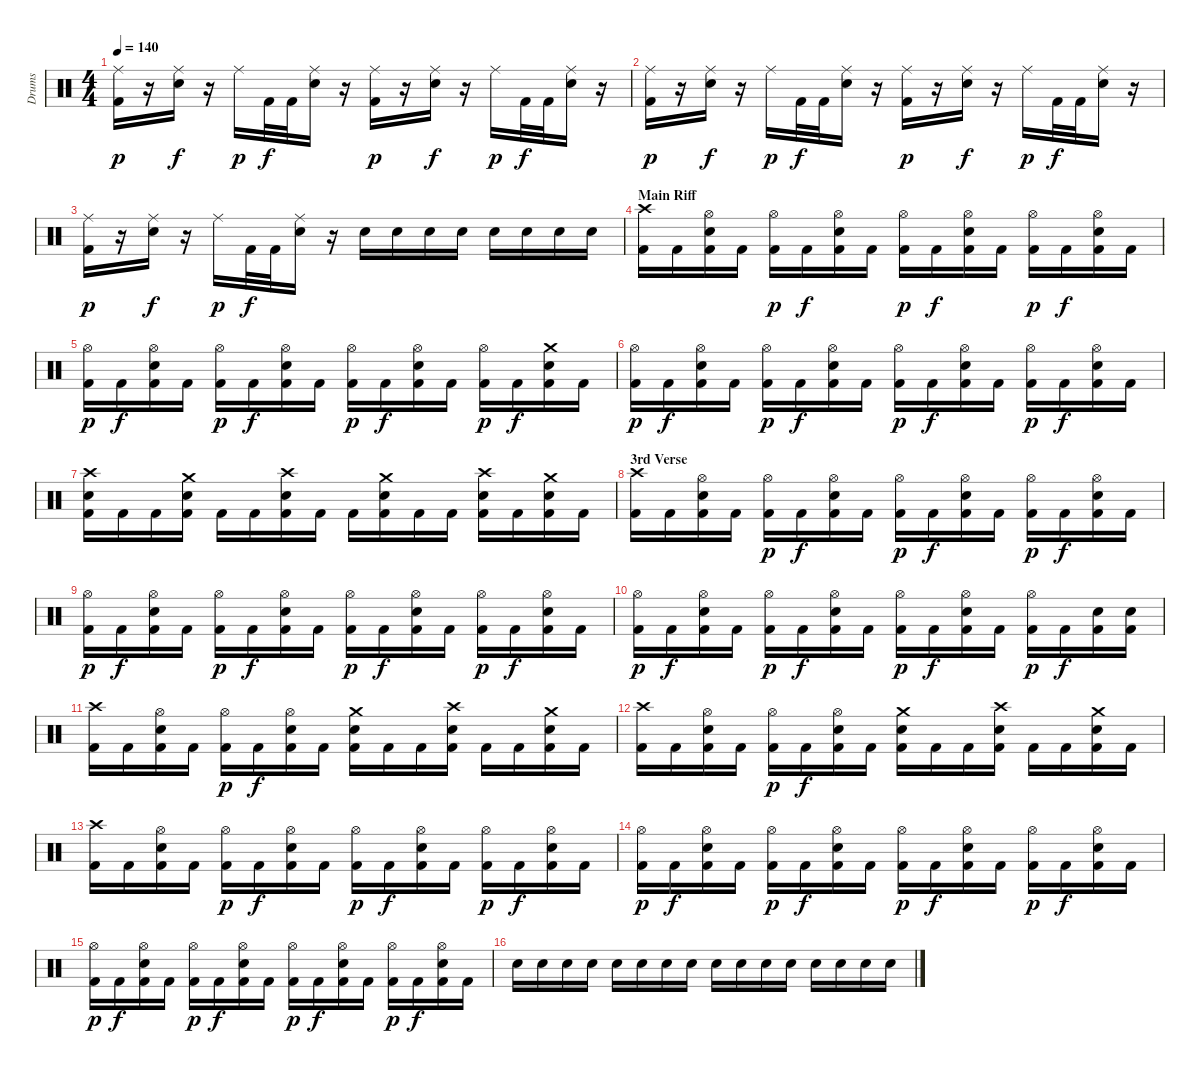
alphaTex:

\track ("Drums" "Drums") {instrument percussion}
\staff {score}
\articulation defaults
\ts (4 4)
\tempo 140
\clef neutral
\ks c
("Ride (middle)" "Kick (hit) 2").16{dy p} r.16 ("Ride (middle)" "Snare (hit) 2").16{dy f} r.16 "Ride (middle)".16{dy p} "Kick (hit) 2".32{dy f} "Kick (hit) 2".32 ("Ride (middle)" "Snare (hit) 2").16 r.16 ("Ride (middle)" "Kick (hit) 2").16{dy p} r.16 ("Ride (middle)" "Snare (hit) 2").16{dy f} r.16 "Ride (middle)".16{dy p} "Kick (hit) 2".32{dy f} "Kick (hit) 2".32 ("Ride (middle)" "Snare (hit) 2").16 r.16 |
("Ride (middle)" "Kick (hit) 2").16{dy p} r.16 ("Ride (middle)" "Snare (hit) 2").16{dy f} r.16 "Ride (middle)".16{dy p} "Kick (hit) 2".32{dy f} "Kick (hit) 2".32 ("Ride (middle)" "Snare (hit) 2").16 r.16 ("Ride (middle)" "Kick (hit) 2").16{dy p} r.16 ("Ride (middle)" "Snare (hit) 2").16{dy f} r.16 "Ride (middle)".16{dy p} "Kick (hit) 2".32{dy f} "Kick (hit) 2".32 ("Ride (middle)" "Snare (hit) 2").16 r.16 |
("Ride (middle)" "Kick (hit) 2").16{dy p} r.16 ("Ride (middle)" "Snare (hit) 2").16{dy f} r.16 "Ride (middle)".16{dy p} "Kick (hit) 2".32{dy f} "Kick (hit) 2".32 ("Ride (middle)" "Snare (hit) 2").16 r.16 "Snare (hit) 2".16 "Snare (hit) 2".16 "Snare (hit) 2".16 "Snare (hit) 2".16 "Snare (hit) 2".16 "Snare (hit) 2".16 "Snare (hit) 2".16 "Snare (hit) 2".16 |
\section ("" "Main Riff")
("Crash high (hit)" "Kick (hit) 2").16 "Kick (hit) 2".16 ("Hi-Hat (open)" "Snare (hit) 2" "Kick (hit) 2").16 "Kick (hit) 2".16 ("Hi-Hat (open)" "Kick (hit) 2").16{dy p} "Kick (hit) 2".16{dy f} ("Hi-Hat (open)" "Snare (hit) 2" "Kick (hit) 2").16 "Kick (hit) 2".16 ("Hi-Hat (open)" "Kick (hit) 2").16{dy p} "Kick (hit) 2".16{dy f} ("Hi-Hat (open)" "Snare (hit) 2" "Kick (hit) 2").16 "Kick (hit) 2".16 ("Hi-Hat (open)" "Kick (hit) 2").16{dy p} "Kick (hit) 2".16{dy f} ("Hi-Hat (open)" "Snare (hit) 2" "Kick (hit) 2").16 "Kick (hit) 2".16 |
("Hi-Hat (open)" "Kick (hit) 2").16{dy p} "Kick (hit) 2".16{dy f} ("Hi-Hat (open)" "Snare (hit) 2" "Kick (hit) 2").16 "Kick (hit) 2".16 ("Hi-Hat (open)" "Kick (hit) 2").16{dy p} "Kick (hit) 2".16{dy f} ("Hi-Hat (open)" "Snare (hit) 2" "Kick (hit) 2").16 "Kick (hit) 2".16 ("Hi-Hat (open)" "Kick (hit) 2").16{dy p} "Kick (hit) 2".16{dy f} ("Hi-Hat (open)" "Snare (hit) 2" "Kick (hit) 2").16 "Kick (hit) 2".16 ("Hi-Hat (open)" "Kick (hit) 2").16{dy p} "Kick (hit) 2".16{dy f} ("Crash medium (hit)" "Snare (hit) 2" "Kick (hit) 2").16 "Kick (hit) 2".16 |
("Hi-Hat (open)" "Kick (hit) 2").16{dy p} "Kick (hit) 2".16{dy f} ("Hi-Hat (open)" "Snare (hit) 2" "Kick (hit) 2").16 "Kick (hit) 2".16 ("Hi-Hat (open)" "Kick (hit) 2").16{dy p} "Kick (hit) 2".16{dy f} ("Hi-Hat (open)" "Snare (hit) 2" "Kick (hit) 2").16 "Kick (hit) 2".16 ("Hi-Hat (open)" "Kick (hit) 2").16{dy p} "Kick (hit) 2".16{dy f} ("Hi-Hat (open)" "Snare (hit) 2" "Kick (hit) 2").16 "Kick (hit) 2".16 ("Hi-Hat (open)" "Kick (hit) 2").16{dy p} "Kick (hit) 2".16{dy f} ("Hi-Hat (open)" "Snare (hit) 2" "Kick (hit) 2").16 "Kick (hit) 2".16 |
("Crash high (hit)" "Snare (hit) 2" "Kick (hit) 2").16 "Kick (hit) 2".16 "Kick (hit) 2".16 ("Crash medium (hit)" "Snare (hit) 2" "Kick (hit) 2").16 "Kick (hit) 2".16 "Kick (hit) 2".16 ("Crash high (hit)" "Snare (hit) 2" "Kick (hit) 2").16 "Kick (hit) 2".16 "Kick (hit) 2".16 ("Crash medium (hit)" "Snare (hit) 2" "Kick (hit) 2").16 "Kick (hit) 2".16 "Kick (hit) 2".16 ("Crash high (hit)" "Snare (hit) 2" "Kick (hit) 2").16 "Kick (hit) 2".16 ("Crash medium (hit)" "Snare (hit) 2" "Kick (hit) 2").16 "Kick (hit) 2".16 |
\section ("" "3rd Verse")
("Crash high (hit)" "Kick (hit) 2").16 "Kick (hit) 2".16 ("Hi-Hat (open)" "Snare (hit) 2" "Kick (hit) 2").16 "Kick (hit) 2".16 ("Hi-Hat (open)" "Kick (hit) 2").16{dy p} "Kick (hit) 2".16{dy f} ("Hi-Hat (open)" "Snare (hit) 2" "Kick (hit) 2").16 "Kick (hit) 2".16 ("Hi-Hat (open)" "Kick (hit) 2").16{dy p} "Kick (hit) 2".16{dy f} ("Hi-Hat (open)" "Snare (hit) 2" "Kick (hit) 2").16 "Kick (hit) 2".16 ("Hi-Hat (open)" "Kick (hit) 2").16{dy p} "Kick (hit) 2".16{dy f} ("Hi-Hat (open)" "Snare (hit) 2" "Kick (hit) 2").16 "Kick (hit) 2".16 |
("Hi-Hat (open)" "Kick (hit) 2").16{dy p} "Kick (hit) 2".16{dy f} ("Hi-Hat (open)" "Snare (hit) 2" "Kick (hit) 2").16 "Kick (hit) 2".16 ("Hi-Hat (open)" "Kick (hit) 2").16{dy p} "Kick (hit) 2".16{dy f} ("Hi-Hat (open)" "Snare (hit) 2" "Kick (hit) 2").16 "Kick (hit) 2".16 ("Hi-Hat (open)" "Kick (hit) 2").16{dy p} "Kick (hit) 2".16{dy f} ("Hi-Hat (open)" "Snare (hit) 2" "Kick (hit) 2").16 "Kick (hit) 2".16 ("Hi-Hat (open)" "Kick (hit) 2").16{dy p} "Kick (hit) 2".16{dy f} ("Hi-Hat (open)" "Snare (hit) 2" "Kick (hit) 2").16 "Kick (hit) 2".16 |
("Hi-Hat (open)" "Kick (hit) 2").16{dy p} "Kick (hit) 2".16{dy f} ("Hi-Hat (open)" "Snare (hit) 2" "Kick (hit) 2").16 "Kick (hit) 2".16 ("Hi-Hat (open)" "Kick (hit) 2").16{dy p} "Kick (hit) 2".16{dy f} ("Hi-Hat (open)" "Snare (hit) 2" "Kick (hit) 2").16 "Kick (hit) 2".16 ("Hi-Hat (open)" "Kick (hit) 2").16{dy p} "Kick (hit) 2".16{dy f} ("Hi-Hat (open)" "Snare (hit) 2" "Kick (hit) 2").16 "Kick (hit) 2".16 ("Hi-Hat (open)" "Kick (hit) 2").16{dy p} "Kick (hit) 2".16{dy f} ("Snare (hit) 2" "Kick (hit) 2").16 ("Snare (hit) 2" "Kick (hit) 2").16 |
("Crash high (hit)" "Kick (hit) 2").16 "Kick (hit) 2".16 ("Hi-Hat (open)" "Snare (hit) 2" "Kick (hit) 2").16 "Kick (hit) 2".16 ("Hi-Hat (open)" "Kick (hit) 2").16{dy p} "Kick (hit) 2".16{dy f} ("Hi-Hat (open)" "Snare (hit) 2" "Kick (hit) 2").16 "Kick (hit) 2".16 ("Crash medium (hit)" "Snare (hit) 2" "Kick (hit) 2").16 "Kick (hit) 2".16 "Kick (hit) 2".16 ("Crash high (hit)" "Snare (hit) 2" "Kick (hit) 2").16 "Kick (hit) 2".16 "Kick (hit) 2".16 ("Crash medium (hit)" "Snare (hit) 2" "Kick (hit) 2").16 "Kick (hit) 2".16 |
("Crash high (hit)" "Kick (hit) 2").16 "Kick (hit) 2".16 ("Hi-Hat (open)" "Snare (hit) 2" "Kick (hit) 2").16 "Kick (hit) 2".16 ("Hi-Hat (open)" "Kick (hit) 2").16{dy p} "Kick (hit) 2".16{dy f} ("Hi-Hat (open)" "Snare (hit) 2" "Kick (hit) 2").16 "Kick (hit) 2".16 ("Crash medium (hit)" "Snare (hit) 2" "Kick (hit) 2").16 "Kick (hit) 2".16 "Kick (hit) 2".16 ("Crash high (hit)" "Snare (hit) 2" "Kick (hit) 2").16 "Kick (hit) 2".16 "Kick (hit) 2".16 ("Crash medium (hit)" "Snare (hit) 2" "Kick (hit) 2").16 "Kick (hit) 2".16 |
("Crash high (hit)" "Kick (hit) 2").16 "Kick (hit) 2".16 ("Hi-Hat (open)" "Snare (hit) 2" "Kick (hit) 2").16 "Kick (hit) 2".16 ("Hi-Hat (open)" "Kick (hit) 2").16{dy p} "Kick (hit) 2".16{dy f} ("Hi-Hat (open)" "Snare (hit) 2" "Kick (hit) 2").16 "Kick (hit) 2".16 ("Hi-Hat (open)" "Kick (hit) 2").16{dy p} "Kick (hit) 2".16{dy f} ("Hi-Hat (open)" "Snare (hit) 2" "Kick (hit) 2").16 "Kick (hit) 2".16 ("Hi-Hat (open)" "Kick (hit) 2").16{dy p} "Kick (hit) 2".16{dy f} ("Hi-Hat (open)" "Snare (hit) 2" "Kick (hit) 2").16 "Kick (hit) 2".16 |
("Hi-Hat (open)" "Kick (hit) 2").16{dy p} "Kick (hit) 2".16{dy f} ("Hi-Hat (open)" "Snare (hit) 2" "Kick (hit) 2").16 "Kick (hit) 2".16 ("Hi-Hat (open)" "Kick (hit) 2").16{dy p} "Kick (hit) 2".16{dy f} ("Hi-Hat (open)" "Snare (hit) 2" "Kick (hit) 2").16 "Kick (hit) 2".16 ("Hi-Hat (open)" "Kick (hit) 2").16{dy p} "Kick (hit) 2".16{dy f} ("Hi-Hat (open)" "Snare (hit) 2" "Kick (hit) 2").16 "Kick (hit) 2".16 ("Hi-Hat (open)" "Kick (hit) 2").16{dy p} "Kick (hit) 2".16{dy f} ("Hi-Hat (open)" "Snare (hit) 2" "Kick (hit) 2").16 "Kick (hit) 2".16 |
("Hi-Hat (open)" "Kick (hit) 2").16{dy p} "Kick (hit) 2".16{dy f} ("Hi-Hat (open)" "Snare (hit) 2" "Kick (hit) 2").16 "Kick (hit) 2".16 ("Hi-Hat (open)" "Kick (hit) 2").16{dy p} "Kick (hit) 2".16{dy f} ("Hi-Hat (open)" "Snare (hit) 2" "Kick (hit) 2").16 "Kick (hit) 2".16 ("Hi-Hat (open)" "Kick (hit) 2").16{dy p} "Kick (hit) 2".16{dy f} ("Hi-Hat (open)" "Snare (hit) 2" "Kick (hit) 2").16 "Kick (hit) 2".16 ("Hi-Hat (open)" "Kick (hit) 2").16{dy p} "Kick (hit) 2".16{dy f} ("Hi-Hat (open)" "Snare (hit) 2" "Kick (hit) 2").16 "Kick (hit) 2".16 |
"Snare (hit) 2".16 "Snare (hit) 2".16 "Snare (hit) 2".16 "Snare (hit) 2".16 "Snare (hit) 2".16 "Snare (hit) 2".16 "Snare (hit) 2".16 "Snare (hit) 2".16 "Snare (hit) 2".16 "Snare (hit) 2".16 "Snare (hit) 2".16 "Snare (hit) 2".16 "Snare (hit) 2".16 "Snare (hit) 2".16 "Snare (hit) 2".16 "Snare (hit) 2".16
